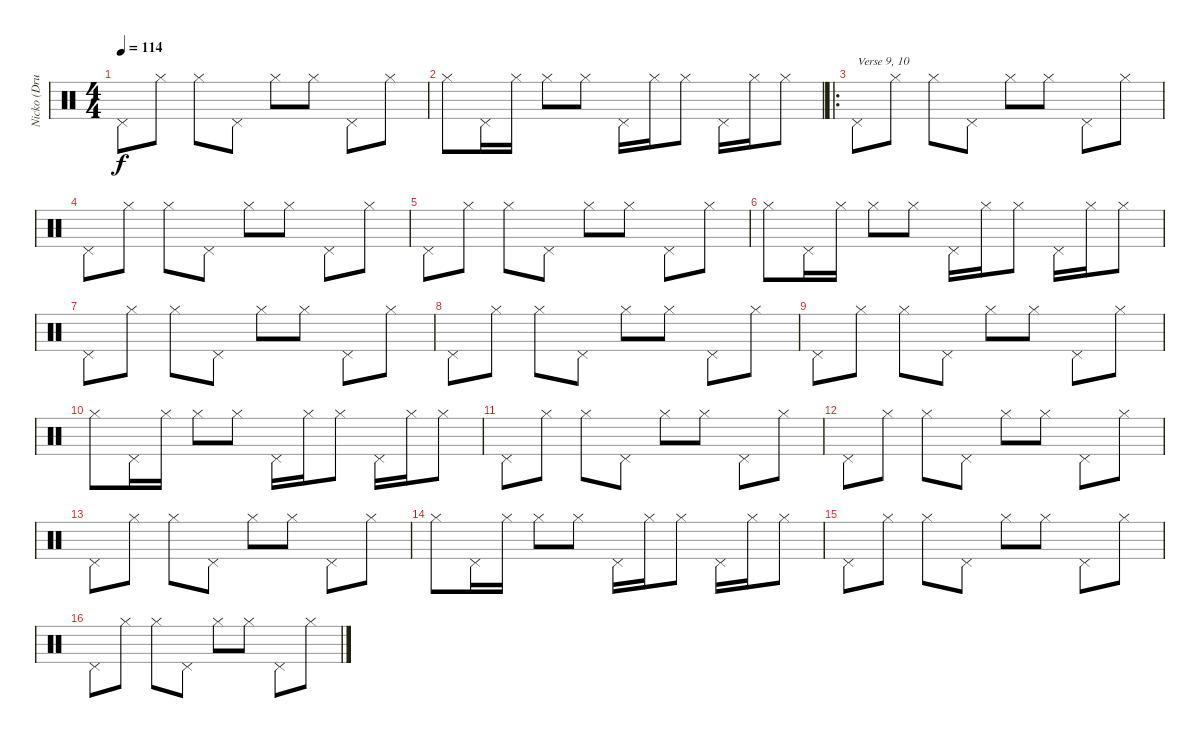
\track ("Nicko (Drums)" "Nicko (Dru") {instrument percussion}
\staff {score}
\articulation defaults
\ts (4 4)
\tempo 114
\clef neutral
\ks c "Pedal Hi-Hat (hit)".8{dy f} "Hi-Hat (closed)".8 "Hi-Hat (closed)".8 "Pedal Hi-Hat (hit)".8 "Hi-Hat (closed)".8 "Hi-Hat (closed)".8 "Pedal Hi-Hat (hit)".8 "Hi-Hat (closed)".8
|
"Hi-Hat (closed)".8 "Pedal Hi-Hat (hit)".16 "Hi-Hat (closed)".16 "Hi-Hat (closed)".8 "Hi-Hat (closed)".8 "Pedal Hi-Hat (hit)".16 "Hi-Hat (closed)".16 "Hi-Hat (closed)".8 "Pedal Hi-Hat (hit)".16 "Hi-Hat (closed)".16 "Hi-Hat (closed)".8 |
\ro "Pedal Hi-Hat (hit)".8{txt "Verse 9, 10"} "Hi-Hat (closed)".8 "Hi-Hat (closed)".8 "Pedal Hi-Hat (hit)".8 "Hi-Hat (closed)".8 "Hi-Hat (closed)".8 "Pedal Hi-Hat (hit)".8 "Hi-Hat (closed)".8
|
"Pedal Hi-Hat (hit)".8 "Hi-Hat (closed)".8 "Hi-Hat (closed)".8 "Pedal Hi-Hat (hit)".8 "Hi-Hat (closed)".8 "Hi-Hat (closed)".8 "Pedal Hi-Hat (hit)".8 "Hi-Hat (closed)".8 |
"Pedal Hi-Hat (hit)".8 "Hi-Hat (closed)".8 "Hi-Hat (closed)".8 "Pedal Hi-Hat (hit)".8 "Hi-Hat (closed)".8 "Hi-Hat (closed)".8 "Pedal Hi-Hat (hit)".8 "Hi-Hat (closed)".8 |
"Hi-Hat (closed)".8 "Pedal Hi-Hat (hit)".16 "Hi-Hat (closed)".16 "Hi-Hat (closed)".8 "Hi-Hat (closed)".8 "Pedal Hi-Hat (hit)".16 "Hi-Hat (closed)".16 "Hi-Hat (closed)".8 "Pedal Hi-Hat (hit)".16 "Hi-Hat (closed)".16 "Hi-Hat (closed)".8 |
"Pedal Hi-Hat (hit)".8 "Hi-Hat (closed)".8 "Hi-Hat (closed)".8 "Pedal Hi-Hat (hit)".8 "Hi-Hat (closed)".8 "Hi-Hat (closed)".8 "Pedal Hi-Hat (hit)".8 "Hi-Hat (closed)".8 |
"Pedal Hi-Hat (hit)".8 "Hi-Hat (closed)".8 "Hi-Hat (closed)".8 "Pedal Hi-Hat (hit)".8 "Hi-Hat (closed)".8 "Hi-Hat (closed)".8 "Pedal Hi-Hat (hit)".8 "Hi-Hat (closed)".8 |
"Pedal Hi-Hat (hit)".8 "Hi-Hat (closed)".8 "Hi-Hat (closed)".8 "Pedal Hi-Hat (hit)".8 "Hi-Hat (closed)".8 "Hi-Hat (closed)".8 "Pedal Hi-Hat (hit)".8 "Hi-Hat (closed)".8 |
"Hi-Hat (closed)".8 "Pedal Hi-Hat (hit)".16 "Hi-Hat (closed)".16 "Hi-Hat (closed)".8 "Hi-Hat (closed)".8 "Pedal Hi-Hat (hit)".16 "Hi-Hat (closed)".16 "Hi-Hat (closed)".8 "Pedal Hi-Hat (hit)".16 "Hi-Hat (closed)".16 "Hi-Hat (closed)".8 |
"Pedal Hi-Hat (hit)".8 "Hi-Hat (closed)".8 "Hi-Hat (closed)".8 "Pedal Hi-Hat (hit)".8 "Hi-Hat (closed)".8 "Hi-Hat (closed)".8 "Pedal Hi-Hat (hit)".8 "Hi-Hat (closed)".8 |
"Pedal Hi-Hat (hit)".8 "Hi-Hat (closed)".8 "Hi-Hat (closed)".8 "Pedal Hi-Hat (hit)".8 "Hi-Hat (closed)".8 "Hi-Hat (closed)".8 "Pedal Hi-Hat (hit)".8 "Hi-Hat (closed)".8 |
"Pedal Hi-Hat (hit)".8 "Hi-Hat (closed)".8 "Hi-Hat (closed)".8 "Pedal Hi-Hat (hit)".8 "Hi-Hat (closed)".8 "Hi-Hat (closed)".8 "Pedal Hi-Hat (hit)".8 "Hi-Hat (closed)".8 |
"Hi-Hat (closed)".8 "Pedal Hi-Hat (hit)".16 "Hi-Hat (closed)".16 "Hi-Hat (closed)".8 "Hi-Hat (closed)".8 "Pedal Hi-Hat (hit)".16 "Hi-Hat (closed)".16 "Hi-Hat (closed)".8 "Pedal Hi-Hat (hit)".16 "Hi-Hat (closed)".16 "Hi-Hat (closed)".8 |
"Pedal Hi-Hat (hit)".8 "Hi-Hat (closed)".8 "Hi-Hat (closed)".8 "Pedal Hi-Hat (hit)".8 "Hi-Hat (closed)".8 "Hi-Hat (closed)".8 "Pedal Hi-Hat (hit)".8 "Hi-Hat (closed)".8 |
"Pedal Hi-Hat (hit)".8 "Hi-Hat (closed)".8 "Hi-Hat (closed)".8 "Pedal Hi-Hat (hit)".8 "Hi-Hat (closed)".8 "Hi-Hat (closed)".8 "Pedal Hi-Hat (hit)".8 "Hi-Hat (closed)".8
